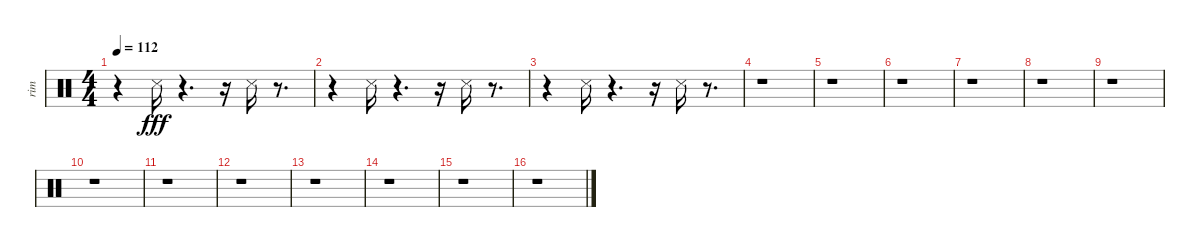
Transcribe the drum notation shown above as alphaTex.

\track ("rim" "rim") {instrument percussion}
\staff {score}
\articulation defaults
\ts (4 4)
\tempo 112
\clef neutral
\ks c
r.4{dy fff} "Snare (side stick) 3".16 r.4{d} r.16 "Snare (side stick) 3".16 r.8{d} |
r.4 "Snare (side stick) 3".16 r.4{d} r.16 "Snare (side stick) 3".16 r.8{d} |
r.4 "Snare (side stick) 3".16 r.4{d} r.16 "Snare (side stick) 3".16 r.8{d} |
r.1 |
r.1 |
r.1 |
r.1 |
r.1 |
r.1 |
r.1 |
r.1 |
r.1 |
r.1 |
r.1 |
r.1 |
r.1
